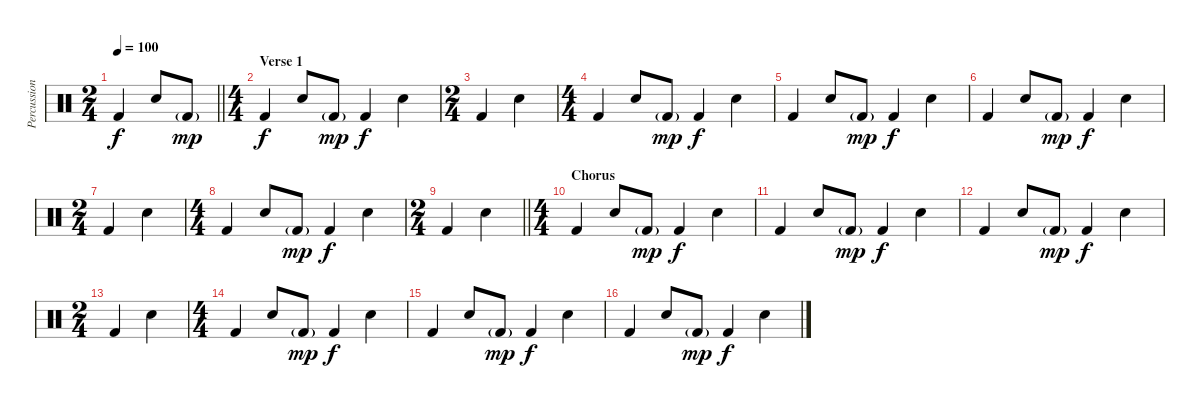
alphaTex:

\track ("Percussion" "Percussion") {instrument percussion}
\staff {score}
\articulation defaults
\ts (2 4)
\tempo 100
\clef neutral
\barLineRight lightlight
\ks c "Kick (hit) 2".4{dy f} "Snare (hit) 2".8 "Kick (hit) 2"{g}.8{dy mp}
|
\ts (4 4)
\section ("" "Verse 1")
"Kick (hit) 2".4{dy f} "Snare (hit) 2".8 "Kick (hit) 2"{g}.8{dy mp} "Kick (hit) 2".4{dy f} "Snare (hit) 2".4 |
\ts (2 4)
"Kick (hit) 2".4 "Snare (hit) 2".4 |
\ts (4 4)
"Kick (hit) 2".4 "Snare (hit) 2".8 "Kick (hit) 2"{g}.8{dy mp} "Kick (hit) 2".4{dy f} "Snare (hit) 2".4 |
"Kick (hit) 2".4 "Snare (hit) 2".8 "Kick (hit) 2"{g}.8{dy mp} "Kick (hit) 2".4{dy f} "Snare (hit) 2".4 |
"Kick (hit) 2".4 "Snare (hit) 2".8 "Kick (hit) 2"{g}.8{dy mp} "Kick (hit) 2".4{dy f} "Snare (hit) 2".4 |
\ts (2 4)
"Kick (hit) 2".4 "Snare (hit) 2".4 |
\ts (4 4)
"Kick (hit) 2".4 "Snare (hit) 2".8 "Kick (hit) 2"{g}.8{dy mp} "Kick (hit) 2".4{dy f} "Snare (hit) 2".4 |
\ts (2 4)
\barLineRight lightlight "Kick (hit) 2".4 "Snare (hit) 2".4
|
\ts (4 4)
\section ("" "Chorus")
"Kick (hit) 2".4 "Snare (hit) 2".8 "Kick (hit) 2"{g}.8{dy mp} "Kick (hit) 2".4{dy f} "Snare (hit) 2".4 |
"Kick (hit) 2".4 "Snare (hit) 2".8 "Kick (hit) 2"{g}.8{dy mp} "Kick (hit) 2".4{dy f} "Snare (hit) 2".4 |
"Kick (hit) 2".4 "Snare (hit) 2".8 "Kick (hit) 2"{g}.8{dy mp} "Kick (hit) 2".4{dy f} "Snare (hit) 2".4 |
\ts (2 4)
"Kick (hit) 2".4 "Snare (hit) 2".4 |
\ts (4 4)
"Kick (hit) 2".4 "Snare (hit) 2".8 "Kick (hit) 2"{g}.8{dy mp} "Kick (hit) 2".4{dy f} "Snare (hit) 2".4 |
"Kick (hit) 2".4 "Snare (hit) 2".8 "Kick (hit) 2"{g}.8{dy mp} "Kick (hit) 2".4{dy f} "Snare (hit) 2".4 |
"Kick (hit) 2".4 "Snare (hit) 2".8 "Kick (hit) 2"{g}.8{dy mp} "Kick (hit) 2".4{dy f} "Snare (hit) 2".4
